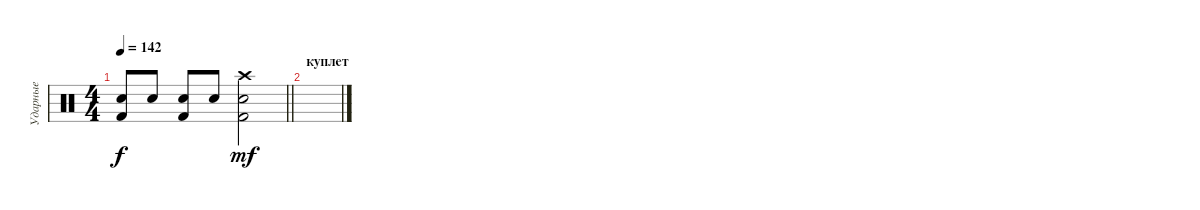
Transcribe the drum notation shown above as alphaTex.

\track ("Ударные" "Ударные") {instrument percussion}
\staff {score}
\articulation defaults
\ts (4 4)
\tempo 142
\clef neutral
\barLineRight lightlight
\ks c
("Kick (hit) 2" "Electric Snare (hit)").8{dy f} "Electric Snare (hit)".8 ("Kick (hit) 2" "Electric Snare (hit)").8 "Electric Snare (hit)".8 ("Kick (hit) 2" "Electric Snare (hit)" "Crash high (hit)").2{dy mf} |
\section ("" "куплет")
